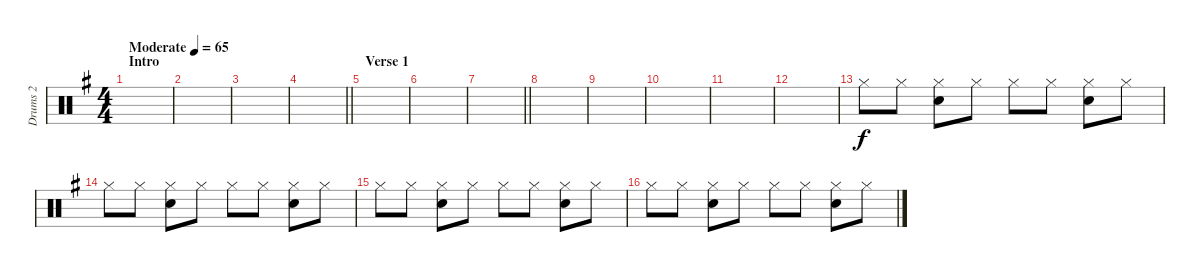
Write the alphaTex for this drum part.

\track ("Drums 2 " "Drums 2 ") {instrument percussion}
\staff {score}
\articulation defaults
\ts (4 4)
\section ("" "Intro")
\tempo (65 "Moderate")
\clef neutral
\ks g
|
|
|
\barLineRight lightlight
|
\section ("" "Verse 1")
|
|
\barLineRight lightlight
|
|
|
|
|
|
"Hi-Hat (closed)".8 "Hi-Hat (closed)".8 ("Hi-Hat (closed)" "Snare (hit) 2").8 "Hi-Hat (closed)".8 "Hi-Hat (closed)".8 "Hi-Hat (closed)".8 ("Hi-Hat (closed)" "Snare (hit) 2").8 "Hi-Hat (closed)".8 |
"Hi-Hat (closed)".8 "Hi-Hat (closed)".8 ("Hi-Hat (closed)" "Snare (hit) 2").8 "Hi-Hat (closed)".8 "Hi-Hat (closed)".8 "Hi-Hat (closed)".8 ("Hi-Hat (closed)" "Snare (hit) 2").8 "Hi-Hat (closed)".8 |
"Hi-Hat (closed)".8 "Hi-Hat (closed)".8 ("Hi-Hat (closed)" "Snare (hit) 2").8 "Hi-Hat (closed)".8 "Hi-Hat (closed)".8 "Hi-Hat (closed)".8 ("Hi-Hat (closed)" "Snare (hit) 2").8 "Hi-Hat (closed)".8 |
"Hi-Hat (closed)".8 "Hi-Hat (closed)".8 ("Hi-Hat (closed)" "Snare (hit) 2").8 "Hi-Hat (closed)".8 "Hi-Hat (closed)".8 "Hi-Hat (closed)".8 ("Hi-Hat (closed)" "Snare (hit) 2").8 "Hi-Hat (closed)".8
